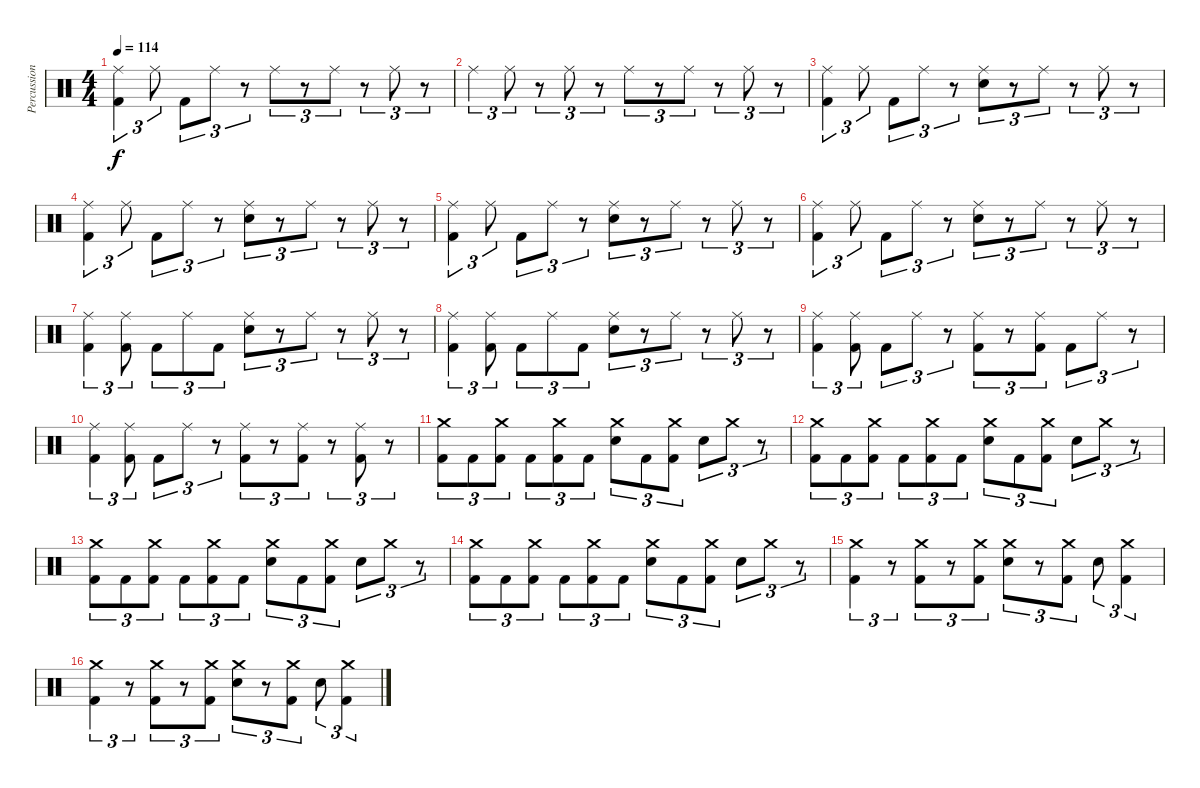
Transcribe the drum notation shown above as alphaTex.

\track ("Percussion" "Percussion") {instrument percussion}
\staff {score}
\articulation defaults
\ts (4 4)
\tempo 114
\clef neutral
\ks c
("Ride (middle)" "Kick (hit) 2").4{tu (3 2) dy f} "Ride (middle)".8{tu (3 2)} "Kick (hit) 2".8{tu (3 2)} "Ride (middle)".8{tu (3 2)} r.8{tu (3 2)} "Ride (middle)".8{tu (3 2)} r.8{tu (3 2)} "Ride (middle)".8{tu (3 2)} r.8{tu (3 2)} "Ride (middle)".8{tu (3 2)} r.8{tu (3 2)} |
"Ride (middle)".4{tu (3 2)} "Ride (middle)".8{tu (3 2)} r.8{tu (3 2)} "Ride (middle)".8{tu (3 2)} r.8{tu (3 2)} "Ride (middle)".8{tu (3 2)} r.8{tu (3 2)} "Ride (middle)".8{tu (3 2)} r.8{tu (3 2)} "Ride (middle)".8{tu (3 2)} r.8{tu (3 2)} |
("Ride (middle)" "Kick (hit) 2").4{tu (3 2)} "Ride (middle)".8{tu (3 2)} "Kick (hit) 2".8{tu (3 2)} "Ride (middle)".8{tu (3 2)} r.8{tu (3 2)} ("Ride (middle)" "Electric Snare (hit)").8{tu (3 2)} r.8{tu (3 2)} "Ride (middle)".8{tu (3 2)} r.8{tu (3 2)} "Ride (middle)".8{tu (3 2)} r.8{tu (3 2)} |
("Ride (middle)" "Kick (hit) 2").4{tu (3 2)} "Ride (middle)".8{tu (3 2)} "Kick (hit) 2".8{tu (3 2)} "Ride (middle)".8{tu (3 2)} r.8{tu (3 2)} ("Ride (middle)" "Electric Snare (hit)").8{tu (3 2)} r.8{tu (3 2)} "Ride (middle)".8{tu (3 2)} r.8{tu (3 2)} "Ride (middle)".8{tu (3 2)} r.8{tu (3 2)} |
("Ride (middle)" "Kick (hit) 2").4{tu (3 2)} "Ride (middle)".8{tu (3 2)} "Kick (hit) 2".8{tu (3 2)} "Ride (middle)".8{tu (3 2)} r.8{tu (3 2)} ("Ride (middle)" "Electric Snare (hit)").8{tu (3 2)} r.8{tu (3 2)} "Ride (middle)".8{tu (3 2)} r.8{tu (3 2)} "Ride (middle)".8{tu (3 2)} r.8{tu (3 2)} |
("Ride (middle)" "Kick (hit) 2").4{tu (3 2)} "Ride (middle)".8{tu (3 2)} "Kick (hit) 2".8{tu (3 2)} "Ride (middle)".8{tu (3 2)} r.8{tu (3 2)} ("Ride (middle)" "Electric Snare (hit)").8{tu (3 2)} r.8{tu (3 2)} "Ride (middle)".8{tu (3 2)} r.8{tu (3 2)} "Ride (middle)".8{tu (3 2)} r.8{tu (3 2)} |
("Ride (middle)" "Kick (hit) 2").4{tu (3 2)} ("Ride (middle)" "Kick (hit) 2").8{tu (3 2)} "Kick (hit) 2".8{tu (3 2)} "Ride (middle)".8{tu (3 2)} "Kick (hit) 2".8{tu (3 2)} ("Ride (middle)" "Electric Snare (hit)").8{tu (3 2)} r.8{tu (3 2)} "Ride (middle)".8{tu (3 2)} r.8{tu (3 2)} "Ride (middle)".8{tu (3 2)} r.8{tu (3 2)} |
("Ride (middle)" "Kick (hit) 2").4{tu (3 2)} ("Ride (middle)" "Kick (hit) 2").8{tu (3 2)} "Kick (hit) 2".8{tu (3 2)} "Ride (middle)".8{tu (3 2)} "Kick (hit) 2".8{tu (3 2)} ("Ride (middle)" "Electric Snare (hit)").8{tu (3 2)} r.8{tu (3 2)} "Ride (middle)".8{tu (3 2)} r.8{tu (3 2)} "Ride (middle)".8{tu (3 2)} r.8{tu (3 2)} |
("Ride (middle)" "Kick (hit) 2").4{tu (3 2)} ("Ride (middle)" "Kick (hit) 2").8{tu (3 2)} "Kick (hit) 2".8{tu (3 2)} "Ride (middle)".8{tu (3 2)} r.8{tu (3 2)} ("Ride (middle)" "Kick (hit) 2").8{tu (3 2)} r.8{tu (3 2)} ("Ride (middle)" "Kick (hit) 2").8{tu (3 2)} "Kick (hit) 2".8{tu (3 2)} "Ride (middle)".8{tu (3 2)} r.8{tu (3 2)} |
("Ride (middle)" "Kick (hit) 2").4{tu (3 2)} ("Ride (middle)" "Kick (hit) 2").8{tu (3 2)} "Kick (hit) 2".8{tu (3 2)} "Ride (middle)".8{tu (3 2)} r.8{tu (3 2)} ("Ride (middle)" "Kick (hit) 2").8{tu (3 2)} r.8{tu (3 2)} ("Ride (middle)" "Kick (hit) 2").8{tu (3 2)} r.8{tu (3 2)} ("Ride (middle)" "Kick (hit) 2").8{tu (3 2)} r.8{tu (3 2)} |
("Crash medium (hit)" "Kick (hit) 2").8{tu (3 2)} "Kick (hit) 2".8{tu (3 2)} ("Crash medium (hit)" "Kick (hit) 2").8{tu (3 2)} "Kick (hit) 2".8{tu (3 2)} ("Crash medium (hit)" "Kick (hit) 2").8{tu (3 2)} "Kick (hit) 2".8{tu (3 2)} ("Crash medium (hit)" "Electric Snare (hit)").8{tu (3 2)} "Kick (hit) 2".8{tu (3 2)} ("Crash medium (hit)" "Kick (hit) 2").8{tu (3 2)} "Electric Snare (hit)".8{tu (3 2)} "Crash medium (hit)".8{tu (3 2)} r.8{tu (3 2)} |
("Crash medium (hit)" "Kick (hit) 2").8{tu (3 2)} "Kick (hit) 2".8{tu (3 2)} ("Crash medium (hit)" "Kick (hit) 2").8{tu (3 2)} "Kick (hit) 2".8{tu (3 2)} ("Crash medium (hit)" "Kick (hit) 2").8{tu (3 2)} "Kick (hit) 2".8{tu (3 2)} ("Crash medium (hit)" "Electric Snare (hit)").8{tu (3 2)} "Kick (hit) 2".8{tu (3 2)} ("Crash medium (hit)" "Kick (hit) 2").8{tu (3 2)} "Electric Snare (hit)".8{tu (3 2)} "Crash medium (hit)".8{tu (3 2)} r.8{tu (3 2)} |
("Crash medium (hit)" "Kick (hit) 2").8{tu (3 2)} "Kick (hit) 2".8{tu (3 2)} ("Crash medium (hit)" "Kick (hit) 2").8{tu (3 2)} "Kick (hit) 2".8{tu (3 2)} ("Crash medium (hit)" "Kick (hit) 2").8{tu (3 2)} "Kick (hit) 2".8{tu (3 2)} ("Crash medium (hit)" "Electric Snare (hit)").8{tu (3 2)} "Kick (hit) 2".8{tu (3 2)} ("Crash medium (hit)" "Kick (hit) 2").8{tu (3 2)} "Electric Snare (hit)".8{tu (3 2)} "Crash medium (hit)".8{tu (3 2)} r.8{tu (3 2)} |
("Crash medium (hit)" "Kick (hit) 2").8{tu (3 2)} "Kick (hit) 2".8{tu (3 2)} ("Crash medium (hit)" "Kick (hit) 2").8{tu (3 2)} "Kick (hit) 2".8{tu (3 2)} ("Crash medium (hit)" "Kick (hit) 2").8{tu (3 2)} "Kick (hit) 2".8{tu (3 2)} ("Crash medium (hit)" "Electric Snare (hit)").8{tu (3 2)} "Kick (hit) 2".8{tu (3 2)} ("Crash medium (hit)" "Kick (hit) 2").8{tu (3 2)} "Electric Snare (hit)".8{tu (3 2)} "Crash medium (hit)".8{tu (3 2)} r.8{tu (3 2)} |
("Crash medium (hit)" "Kick (hit) 2").4{tu (3 2)} r.8{tu (3 2)} ("Crash medium (hit)" "Kick (hit) 2").8{tu (3 2)} r.8{tu (3 2)} ("Crash medium (hit)" "Kick (hit) 2").8{tu (3 2)} ("Crash medium (hit)" "Electric Snare (hit)").8{tu (3 2)} r.8{tu (3 2)} ("Crash medium (hit)" "Kick (hit) 2").8{tu (3 2)} "Electric Snare (hit)".8{tu (3 2)} ("Crash medium (hit)" "Kick (hit) 2").4{tu (3 2)} |
("Crash medium (hit)" "Kick (hit) 2").4{tu (3 2)} r.8{tu (3 2)} ("Crash medium (hit)" "Kick (hit) 2").8{tu (3 2)} r.8{tu (3 2)} ("Crash medium (hit)" "Kick (hit) 2").8{tu (3 2)} ("Crash medium (hit)" "Electric Snare (hit)").8{tu (3 2)} r.8{tu (3 2)} ("Crash medium (hit)" "Kick (hit) 2").8{tu (3 2)} "Electric Snare (hit)".8{tu (3 2)} ("Crash medium (hit)" "Kick (hit) 2").4{tu (3 2)}
